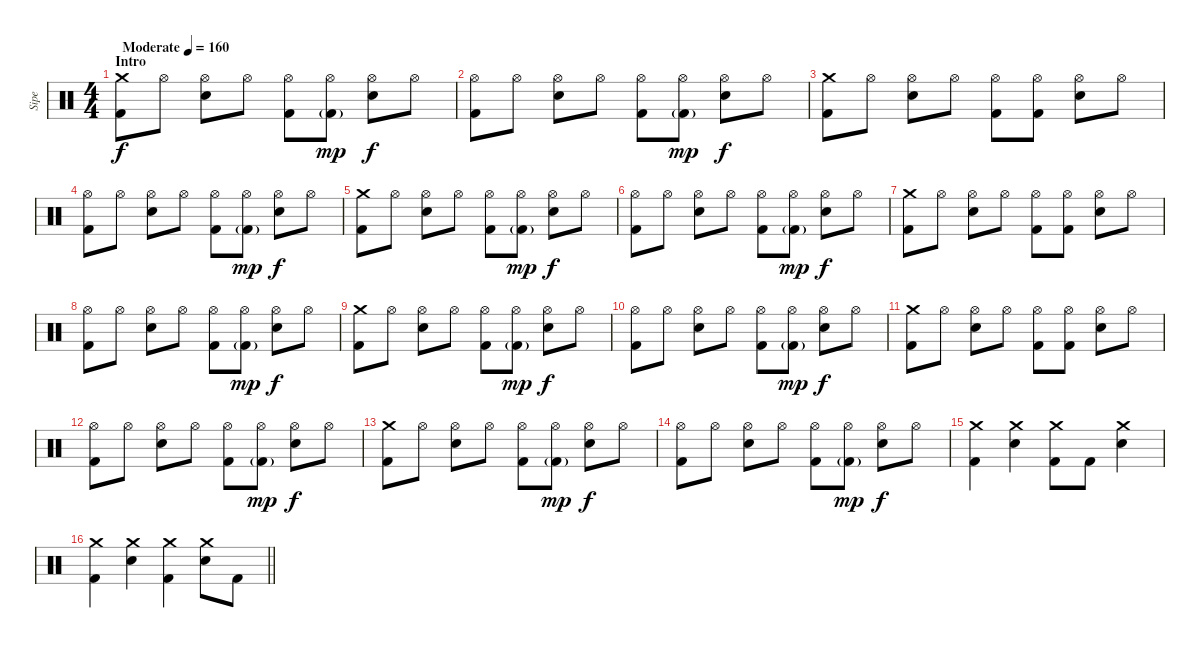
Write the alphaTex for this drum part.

\track ("Sipe" "Sipe") {instrument percussion}
\staff {score}
\articulation defaults
\ts (4 4)
\section ("" "Intro")
\tempo (160 "Moderate")
\clef neutral
\ks c
("Crash medium (hit)" "Kick (hit) 2").8{dy f} "Hi-Hat (open)".8 ("Hi-Hat (open)" "Snare (hit) 2").8 "Hi-Hat (open)".8 ("Hi-Hat (open)" "Kick (hit) 2").8 ("Hi-Hat (open)" "Kick (hit) 2"{g}).8{dy mp} ("Hi-Hat (open)" "Snare (hit) 2").8{dy f} "Hi-Hat (open)".8 |
("Hi-Hat (open)" "Kick (hit) 2").8 "Hi-Hat (open)".8 ("Hi-Hat (open)" "Snare (hit) 2").8 "Hi-Hat (open)".8 ("Hi-Hat (open)" "Kick (hit) 2").8 ("Hi-Hat (open)" "Kick (hit) 2"{g}).8{dy mp} ("Hi-Hat (open)" "Snare (hit) 2").8{dy f} "Hi-Hat (open)".8 |
("Crash medium (hit)" "Kick (hit) 2").8 "Hi-Hat (open)".8 ("Hi-Hat (open)" "Snare (hit) 2").8 "Hi-Hat (open)".8 ("Hi-Hat (open)" "Kick (hit) 2").8 ("Hi-Hat (open)" "Kick (hit) 2").8 ("Hi-Hat (open)" "Snare (hit) 2").8 "Hi-Hat (open)".8 |
("Hi-Hat (open)" "Kick (hit) 2").8 "Hi-Hat (open)".8 ("Hi-Hat (open)" "Snare (hit) 2").8 "Hi-Hat (open)".8 ("Hi-Hat (open)" "Kick (hit) 2").8 ("Hi-Hat (open)" "Kick (hit) 2"{g}).8{dy mp} ("Hi-Hat (open)" "Snare (hit) 2").8{dy f} "Hi-Hat (open)".8 |
("Crash medium (hit)" "Kick (hit) 2").8 "Hi-Hat (open)".8 ("Hi-Hat (open)" "Snare (hit) 2").8 "Hi-Hat (open)".8 ("Hi-Hat (open)" "Kick (hit) 2").8 ("Hi-Hat (open)" "Kick (hit) 2"{g}).8{dy mp} ("Hi-Hat (open)" "Snare (hit) 2").8{dy f} "Hi-Hat (open)".8 |
("Hi-Hat (open)" "Kick (hit) 2").8 "Hi-Hat (open)".8 ("Hi-Hat (open)" "Snare (hit) 2").8 "Hi-Hat (open)".8 ("Hi-Hat (open)" "Kick (hit) 2").8 ("Hi-Hat (open)" "Kick (hit) 2"{g}).8{dy mp} ("Hi-Hat (open)" "Snare (hit) 2").8{dy f} "Hi-Hat (open)".8 |
("Crash medium (hit)" "Kick (hit) 2").8 "Hi-Hat (open)".8 ("Hi-Hat (open)" "Snare (hit) 2").8 "Hi-Hat (open)".8 ("Hi-Hat (open)" "Kick (hit) 2").8 ("Hi-Hat (open)" "Kick (hit) 2").8 ("Hi-Hat (open)" "Snare (hit) 2").8 "Hi-Hat (open)".8 |
("Hi-Hat (open)" "Kick (hit) 2").8 "Hi-Hat (open)".8 ("Hi-Hat (open)" "Snare (hit) 2").8 "Hi-Hat (open)".8 ("Hi-Hat (open)" "Kick (hit) 2").8 ("Hi-Hat (open)" "Kick (hit) 2"{g}).8{dy mp} ("Hi-Hat (open)" "Snare (hit) 2").8{dy f} "Hi-Hat (open)".8 |
("Crash medium (hit)" "Kick (hit) 2").8 "Hi-Hat (open)".8 ("Hi-Hat (open)" "Snare (hit) 2").8 "Hi-Hat (open)".8 ("Hi-Hat (open)" "Kick (hit) 2").8 ("Hi-Hat (open)" "Kick (hit) 2"{g}).8{dy mp} ("Hi-Hat (open)" "Snare (hit) 2").8{dy f} "Hi-Hat (open)".8 |
("Hi-Hat (open)" "Kick (hit) 2").8 "Hi-Hat (open)".8 ("Hi-Hat (open)" "Snare (hit) 2").8 "Hi-Hat (open)".8 ("Hi-Hat (open)" "Kick (hit) 2").8 ("Hi-Hat (open)" "Kick (hit) 2"{g}).8{dy mp} ("Hi-Hat (open)" "Snare (hit) 2").8{dy f} "Hi-Hat (open)".8 |
("Crash medium (hit)" "Kick (hit) 2").8 "Hi-Hat (open)".8 ("Hi-Hat (open)" "Snare (hit) 2").8 "Hi-Hat (open)".8 ("Hi-Hat (open)" "Kick (hit) 2").8 ("Hi-Hat (open)" "Kick (hit) 2").8 ("Hi-Hat (open)" "Snare (hit) 2").8 "Hi-Hat (open)".8 |
("Hi-Hat (open)" "Kick (hit) 2").8 "Hi-Hat (open)".8 ("Hi-Hat (open)" "Snare (hit) 2").8 "Hi-Hat (open)".8 ("Hi-Hat (open)" "Kick (hit) 2").8 ("Hi-Hat (open)" "Kick (hit) 2"{g}).8{dy mp} ("Hi-Hat (open)" "Snare (hit) 2").8{dy f} "Hi-Hat (open)".8 |
("Crash medium (hit)" "Kick (hit) 2").8 "Hi-Hat (open)".8 ("Hi-Hat (open)" "Snare (hit) 2").8 "Hi-Hat (open)".8 ("Hi-Hat (open)" "Kick (hit) 2").8 ("Hi-Hat (open)" "Kick (hit) 2"{g}).8{dy mp} ("Hi-Hat (open)" "Snare (hit) 2").8{dy f} "Hi-Hat (open)".8 |
("Hi-Hat (open)" "Kick (hit) 2").8 "Hi-Hat (open)".8 ("Hi-Hat (open)" "Snare (hit) 2").8 "Hi-Hat (open)".8 ("Hi-Hat (open)" "Kick (hit) 2").8 ("Hi-Hat (open)" "Kick (hit) 2"{g}).8{dy mp} ("Hi-Hat (open)" "Snare (hit) 2").8{dy f} "Hi-Hat (open)".8 |
("Crash medium (hit)" "Kick (hit) 2").4 ("Crash medium (hit)" "Snare (hit) 2").4 ("Crash medium (hit)" "Kick (hit) 2").8 "Kick (hit) 2".8 ("Crash medium (hit)" "Snare (hit) 2").4 |
\barLineRight lightlight
("Crash medium (hit)" "Kick (hit) 2").4 ("Crash medium (hit)" "Snare (hit) 2").4 ("Crash medium (hit)" "Kick (hit) 2").4 ("Crash medium (hit)" "Snare (hit) 2").8 "Kick (hit) 2".8
